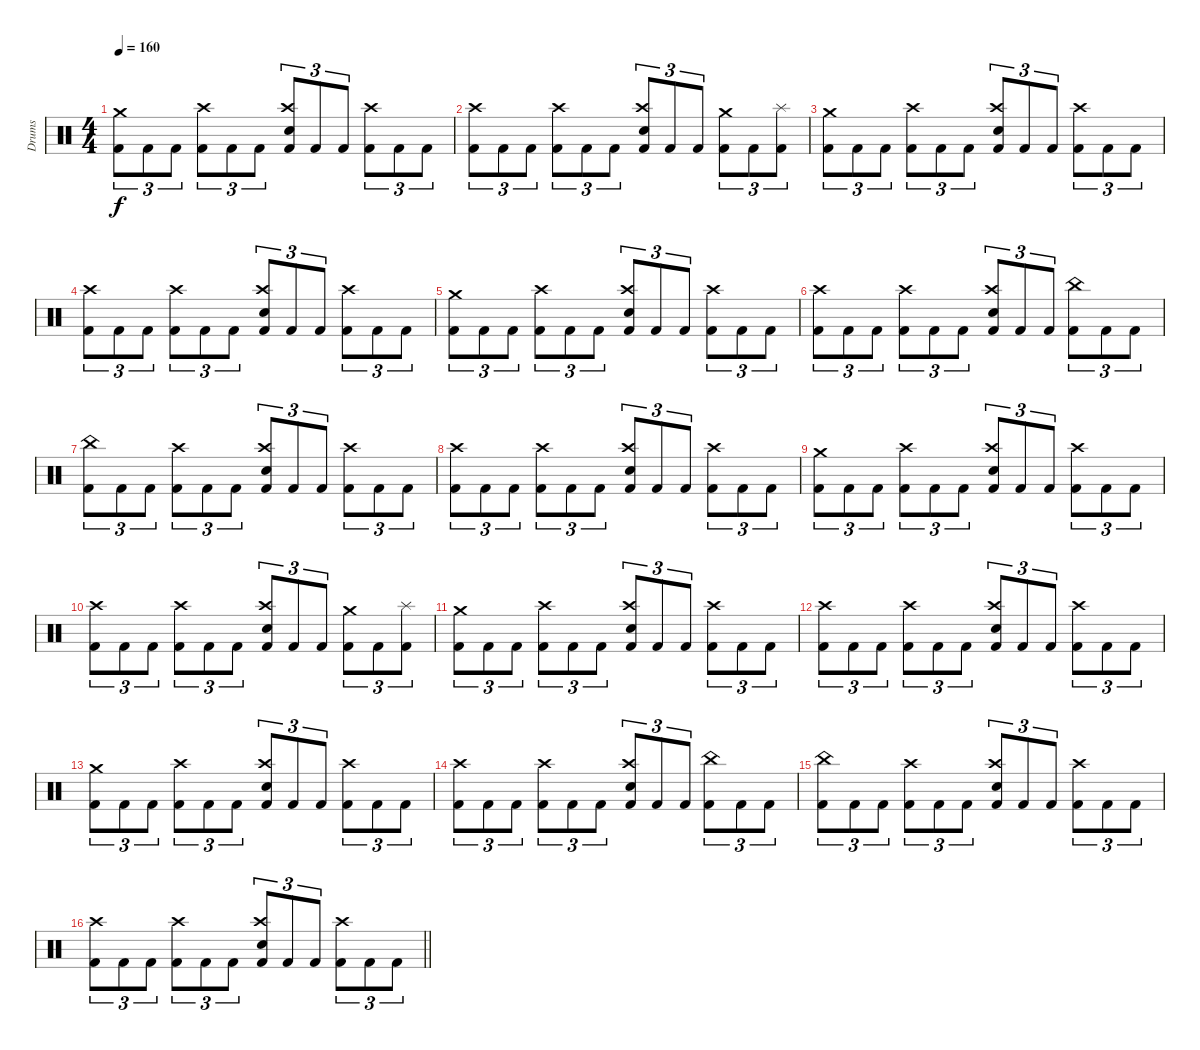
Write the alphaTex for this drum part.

\track ("Drums" "Drums") {instrument percussion}
\staff {score}
\articulation defaults
\ts (4 4)
\tempo 160
\clef neutral
\ks c
("Crash medium (hit)" "Kick (hit) 2").8{tu (3 2) dy f} "Kick (hit) 2".8{tu (3 2)} "Kick (hit) 2".8{tu (3 2)} ("Crash high (hit)" "Kick (hit) 2").8{tu (3 2)} "Kick (hit) 2".8{tu (3 2)} "Kick (hit) 2".8{tu (3 2)} ("Crash high (hit)" "Electric Snare (hit)" "Kick (hit) 2").8{tu (3 2)} "Kick (hit) 2".8{tu (3 2)} "Kick (hit) 2".8{tu (3 2)} ("Crash high (hit)" "Kick (hit) 2").8{tu (3 2)} "Kick (hit) 2".8{tu (3 2)} "Kick (hit) 2".8{tu (3 2)} |
("Crash high (hit)" "Kick (hit) 2").8{tu (3 2)} "Kick (hit) 2".8{tu (3 2)} "Kick (hit) 2".8{tu (3 2)} ("Crash high (hit)" "Kick (hit) 2").8{tu (3 2)} "Kick (hit) 2".8{tu (3 2)} "Kick (hit) 2".8{tu (3 2)} ("Crash high (hit)" "Electric Snare (hit)" "Kick (hit) 2").8{tu (3 2)} "Kick (hit) 2".8{tu (3 2)} "Kick (hit) 2".8{tu (3 2)} ("Crash medium (hit)" "Kick (hit) 2").8{tu (3 2)} "Kick (hit) 2".8{tu (3 2)} ("Splash (hit)" "Kick (hit) 2").8{tu (3 2)} |
("Crash medium (hit)" "Kick (hit) 2").8{tu (3 2)} "Kick (hit) 2".8{tu (3 2)} "Kick (hit) 2".8{tu (3 2)} ("Crash high (hit)" "Kick (hit) 2").8{tu (3 2)} "Kick (hit) 2".8{tu (3 2)} "Kick (hit) 2".8{tu (3 2)} ("Crash high (hit)" "Electric Snare (hit)" "Kick (hit) 2").8{tu (3 2)} "Kick (hit) 2".8{tu (3 2)} "Kick (hit) 2".8{tu (3 2)} ("Crash high (hit)" "Kick (hit) 2").8{tu (3 2)} "Kick (hit) 2".8{tu (3 2)} "Kick (hit) 2".8{tu (3 2)} |
("Crash high (hit)" "Kick (hit) 2").8{tu (3 2)} "Kick (hit) 2".8{tu (3 2)} "Kick (hit) 2".8{tu (3 2)} ("Crash high (hit)" "Kick (hit) 2").8{tu (3 2)} "Kick (hit) 2".8{tu (3 2)} "Kick (hit) 2".8{tu (3 2)} ("Crash high (hit)" "Electric Snare (hit)" "Kick (hit) 2").8{tu (3 2)} "Kick (hit) 2".8{tu (3 2)} "Kick (hit) 2".8{tu (3 2)} ("Crash high (hit)" "Kick (hit) 2").8{tu (3 2)} "Kick (hit) 2".8{tu (3 2)} "Kick (hit) 2".8{tu (3 2)} |
("Crash medium (hit)" "Kick (hit) 2").8{tu (3 2)} "Kick (hit) 2".8{tu (3 2)} "Kick (hit) 2".8{tu (3 2)} ("Crash high (hit)" "Kick (hit) 2").8{tu (3 2)} "Kick (hit) 2".8{tu (3 2)} "Kick (hit) 2".8{tu (3 2)} ("Crash high (hit)" "Electric Snare (hit)" "Kick (hit) 2").8{tu (3 2)} "Kick (hit) 2".8{tu (3 2)} "Kick (hit) 2".8{tu (3 2)} ("Crash high (hit)" "Kick (hit) 2").8{tu (3 2)} "Kick (hit) 2".8{tu (3 2)} "Kick (hit) 2".8{tu (3 2)} |
("Crash high (hit)" "Kick (hit) 2").8{tu (3 2)} "Kick (hit) 2".8{tu (3 2)} "Kick (hit) 2".8{tu (3 2)} ("Crash high (hit)" "Kick (hit) 2").8{tu (3 2)} "Kick (hit) 2".8{tu (3 2)} "Kick (hit) 2".8{tu (3 2)} ("Crash high (hit)" "Electric Snare (hit)" "Kick (hit) 2").8{tu (3 2)} "Kick (hit) 2".8{tu (3 2)} "Kick (hit) 2".8{tu (3 2)} ("China (hit)" "Kick (hit) 2").8{tu (3 2)} "Kick (hit) 2".8{tu (3 2)} "Kick (hit) 2".8{tu (3 2)} |
("China (hit)" "Kick (hit) 2").8{tu (3 2)} "Kick (hit) 2".8{tu (3 2)} "Kick (hit) 2".8{tu (3 2)} ("Crash high (hit)" "Kick (hit) 2").8{tu (3 2)} "Kick (hit) 2".8{tu (3 2)} "Kick (hit) 2".8{tu (3 2)} ("Crash high (hit)" "Electric Snare (hit)" "Kick (hit) 2").8{tu (3 2)} "Kick (hit) 2".8{tu (3 2)} "Kick (hit) 2".8{tu (3 2)} ("Crash high (hit)" "Kick (hit) 2").8{tu (3 2)} "Kick (hit) 2".8{tu (3 2)} "Kick (hit) 2".8{tu (3 2)} |
("Crash high (hit)" "Kick (hit) 2").8{tu (3 2)} "Kick (hit) 2".8{tu (3 2)} "Kick (hit) 2".8{tu (3 2)} ("Crash high (hit)" "Kick (hit) 2").8{tu (3 2)} "Kick (hit) 2".8{tu (3 2)} "Kick (hit) 2".8{tu (3 2)} ("Crash high (hit)" "Electric Snare (hit)" "Kick (hit) 2").8{tu (3 2)} "Kick (hit) 2".8{tu (3 2)} "Kick (hit) 2".8{tu (3 2)} ("Crash high (hit)" "Kick (hit) 2").8{tu (3 2)} "Kick (hit) 2".8{tu (3 2)} "Kick (hit) 2".8{tu (3 2)} |
("Crash medium (hit)" "Kick (hit) 2").8{tu (3 2)} "Kick (hit) 2".8{tu (3 2)} "Kick (hit) 2".8{tu (3 2)} ("Crash high (hit)" "Kick (hit) 2").8{tu (3 2)} "Kick (hit) 2".8{tu (3 2)} "Kick (hit) 2".8{tu (3 2)} ("Crash high (hit)" "Electric Snare (hit)" "Kick (hit) 2").8{tu (3 2)} "Kick (hit) 2".8{tu (3 2)} "Kick (hit) 2".8{tu (3 2)} ("Crash high (hit)" "Kick (hit) 2").8{tu (3 2)} "Kick (hit) 2".8{tu (3 2)} "Kick (hit) 2".8{tu (3 2)} |
("Crash high (hit)" "Kick (hit) 2").8{tu (3 2)} "Kick (hit) 2".8{tu (3 2)} "Kick (hit) 2".8{tu (3 2)} ("Crash high (hit)" "Kick (hit) 2").8{tu (3 2)} "Kick (hit) 2".8{tu (3 2)} "Kick (hit) 2".8{tu (3 2)} ("Crash high (hit)" "Electric Snare (hit)" "Kick (hit) 2").8{tu (3 2)} "Kick (hit) 2".8{tu (3 2)} "Kick (hit) 2".8{tu (3 2)} ("Crash medium (hit)" "Kick (hit) 2").8{tu (3 2)} "Kick (hit) 2".8{tu (3 2)} ("Splash (hit)" "Kick (hit) 2").8{tu (3 2)} |
("Crash medium (hit)" "Kick (hit) 2").8{tu (3 2)} "Kick (hit) 2".8{tu (3 2)} "Kick (hit) 2".8{tu (3 2)} ("Crash high (hit)" "Kick (hit) 2").8{tu (3 2)} "Kick (hit) 2".8{tu (3 2)} "Kick (hit) 2".8{tu (3 2)} ("Crash high (hit)" "Electric Snare (hit)" "Kick (hit) 2").8{tu (3 2)} "Kick (hit) 2".8{tu (3 2)} "Kick (hit) 2".8{tu (3 2)} ("Crash high (hit)" "Kick (hit) 2").8{tu (3 2)} "Kick (hit) 2".8{tu (3 2)} "Kick (hit) 2".8{tu (3 2)} |
("Crash high (hit)" "Kick (hit) 2").8{tu (3 2)} "Kick (hit) 2".8{tu (3 2)} "Kick (hit) 2".8{tu (3 2)} ("Crash high (hit)" "Kick (hit) 2").8{tu (3 2)} "Kick (hit) 2".8{tu (3 2)} "Kick (hit) 2".8{tu (3 2)} ("Crash high (hit)" "Electric Snare (hit)" "Kick (hit) 2").8{tu (3 2)} "Kick (hit) 2".8{tu (3 2)} "Kick (hit) 2".8{tu (3 2)} ("Crash high (hit)" "Kick (hit) 2").8{tu (3 2)} "Kick (hit) 2".8{tu (3 2)} "Kick (hit) 2".8{tu (3 2)} |
("Crash medium (hit)" "Kick (hit) 2").8{tu (3 2)} "Kick (hit) 2".8{tu (3 2)} "Kick (hit) 2".8{tu (3 2)} ("Crash high (hit)" "Kick (hit) 2").8{tu (3 2)} "Kick (hit) 2".8{tu (3 2)} "Kick (hit) 2".8{tu (3 2)} ("Crash high (hit)" "Electric Snare (hit)" "Kick (hit) 2").8{tu (3 2)} "Kick (hit) 2".8{tu (3 2)} "Kick (hit) 2".8{tu (3 2)} ("Crash high (hit)" "Kick (hit) 2").8{tu (3 2)} "Kick (hit) 2".8{tu (3 2)} "Kick (hit) 2".8{tu (3 2)} |
("Crash high (hit)" "Kick (hit) 2").8{tu (3 2)} "Kick (hit) 2".8{tu (3 2)} "Kick (hit) 2".8{tu (3 2)} ("Crash high (hit)" "Kick (hit) 2").8{tu (3 2)} "Kick (hit) 2".8{tu (3 2)} "Kick (hit) 2".8{tu (3 2)} ("Crash high (hit)" "Electric Snare (hit)" "Kick (hit) 2").8{tu (3 2)} "Kick (hit) 2".8{tu (3 2)} "Kick (hit) 2".8{tu (3 2)} ("China (hit)" "Kick (hit) 2").8{tu (3 2)} "Kick (hit) 2".8{tu (3 2)} "Kick (hit) 2".8{tu (3 2)} |
("China (hit)" "Kick (hit) 2").8{tu (3 2)} "Kick (hit) 2".8{tu (3 2)} "Kick (hit) 2".8{tu (3 2)} ("Crash high (hit)" "Kick (hit) 2").8{tu (3 2)} "Kick (hit) 2".8{tu (3 2)} "Kick (hit) 2".8{tu (3 2)} ("Crash high (hit)" "Electric Snare (hit)" "Kick (hit) 2").8{tu (3 2)} "Kick (hit) 2".8{tu (3 2)} "Kick (hit) 2".8{tu (3 2)} ("Crash high (hit)" "Kick (hit) 2").8{tu (3 2)} "Kick (hit) 2".8{tu (3 2)} "Kick (hit) 2".8{tu (3 2)} |
\barLineRight lightlight
("Crash high (hit)" "Kick (hit) 2").8{tu (3 2)} "Kick (hit) 2".8{tu (3 2)} "Kick (hit) 2".8{tu (3 2)} ("Crash high (hit)" "Kick (hit) 2").8{tu (3 2)} "Kick (hit) 2".8{tu (3 2)} "Kick (hit) 2".8{tu (3 2)} ("Crash high (hit)" "Electric Snare (hit)" "Kick (hit) 2").8{tu (3 2)} "Kick (hit) 2".8{tu (3 2)} "Kick (hit) 2".8{tu (3 2)} ("Crash high (hit)" "Kick (hit) 2").8{tu (3 2)} "Kick (hit) 2".8{tu (3 2)} "Kick (hit) 2".8{tu (3 2)}
